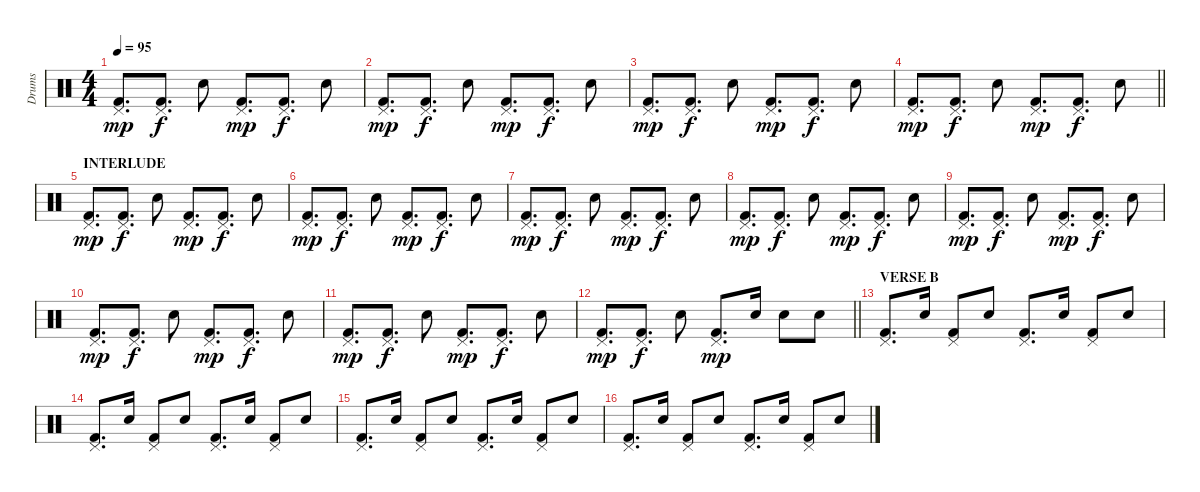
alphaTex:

\track ("Drums" "Drums") {instrument percussion}
\staff {score}
\articulation defaults
\ts (4 4)
\tempo 95
\clef neutral
\ks c
("Pedal Hi-Hat (hit)" "Kick (hit) 2").8{d dy mp} ("Pedal Hi-Hat (hit)" "Kick (hit) 2").8{d dy f} "Snare (hit) 2".8 ("Pedal Hi-Hat (hit)" "Kick (hit) 2").8{d dy mp} ("Pedal Hi-Hat (hit)" "Kick (hit) 2").8{d dy f} "Snare (hit) 2".8 |
("Pedal Hi-Hat (hit)" "Kick (hit) 2").8{d dy mp} ("Pedal Hi-Hat (hit)" "Kick (hit) 2").8{d dy f} "Snare (hit) 2".8 ("Pedal Hi-Hat (hit)" "Kick (hit) 2").8{d dy mp} ("Pedal Hi-Hat (hit)" "Kick (hit) 2").8{d dy f} "Snare (hit) 2".8 |
("Pedal Hi-Hat (hit)" "Kick (hit) 2").8{d dy mp} ("Pedal Hi-Hat (hit)" "Kick (hit) 2").8{d dy f} "Snare (hit) 2".8 ("Pedal Hi-Hat (hit)" "Kick (hit) 2").8{d dy mp} ("Pedal Hi-Hat (hit)" "Kick (hit) 2").8{d dy f} "Snare (hit) 2".8 |
\barLineRight lightlight
("Pedal Hi-Hat (hit)" "Kick (hit) 2").8{d dy mp} ("Pedal Hi-Hat (hit)" "Kick (hit) 2").8{d dy f} "Snare (hit) 2".8 ("Pedal Hi-Hat (hit)" "Kick (hit) 2").8{d dy mp} ("Pedal Hi-Hat (hit)" "Kick (hit) 2").8{d dy f} "Snare (hit) 2".8 |
\section ("" "INTERLUDE")
("Pedal Hi-Hat (hit)" "Kick (hit) 2").8{d dy mp} ("Pedal Hi-Hat (hit)" "Kick (hit) 2").8{d dy f} "Snare (hit) 2".8 ("Pedal Hi-Hat (hit)" "Kick (hit) 2").8{d dy mp} ("Pedal Hi-Hat (hit)" "Kick (hit) 2").8{d dy f} "Snare (hit) 2".8 |
("Pedal Hi-Hat (hit)" "Kick (hit) 2").8{d dy mp} ("Pedal Hi-Hat (hit)" "Kick (hit) 2").8{d dy f} "Snare (hit) 2".8 ("Pedal Hi-Hat (hit)" "Kick (hit) 2").8{d dy mp} ("Pedal Hi-Hat (hit)" "Kick (hit) 2").8{d dy f} "Snare (hit) 2".8 |
("Pedal Hi-Hat (hit)" "Kick (hit) 2").8{d dy mp} ("Pedal Hi-Hat (hit)" "Kick (hit) 2").8{d dy f} "Snare (hit) 2".8 ("Pedal Hi-Hat (hit)" "Kick (hit) 2").8{d dy mp} ("Pedal Hi-Hat (hit)" "Kick (hit) 2").8{d dy f} "Snare (hit) 2".8 |
("Pedal Hi-Hat (hit)" "Kick (hit) 2").8{d dy mp} ("Pedal Hi-Hat (hit)" "Kick (hit) 2").8{d dy f} "Snare (hit) 2".8 ("Pedal Hi-Hat (hit)" "Kick (hit) 2").8{d dy mp} ("Pedal Hi-Hat (hit)" "Kick (hit) 2").8{d dy f} "Snare (hit) 2".8 |
("Pedal Hi-Hat (hit)" "Kick (hit) 2").8{d dy mp} ("Pedal Hi-Hat (hit)" "Kick (hit) 2").8{d dy f} "Snare (hit) 2".8 ("Pedal Hi-Hat (hit)" "Kick (hit) 2").8{d dy mp} ("Pedal Hi-Hat (hit)" "Kick (hit) 2").8{d dy f} "Snare (hit) 2".8 |
("Pedal Hi-Hat (hit)" "Kick (hit) 2").8{d dy mp} ("Pedal Hi-Hat (hit)" "Kick (hit) 2").8{d dy f} "Snare (hit) 2".8 ("Pedal Hi-Hat (hit)" "Kick (hit) 2").8{d dy mp} ("Pedal Hi-Hat (hit)" "Kick (hit) 2").8{d dy f} "Snare (hit) 2".8 |
("Pedal Hi-Hat (hit)" "Kick (hit) 2").8{d dy mp} ("Pedal Hi-Hat (hit)" "Kick (hit) 2").8{d dy f} "Snare (hit) 2".8 ("Pedal Hi-Hat (hit)" "Kick (hit) 2").8{d dy mp} ("Pedal Hi-Hat (hit)" "Kick (hit) 2").8{d dy f} "Snare (hit) 2".8 |
\barLineRight lightlight
("Pedal Hi-Hat (hit)" "Kick (hit) 2").8{d dy mp} ("Pedal Hi-Hat (hit)" "Kick (hit) 2").8{d dy f} "Snare (hit) 2".8 ("Pedal Hi-Hat (hit)" "Kick (hit) 2").8{d dy mp} "Snare (hit) 2".16 "Snare (hit) 2".8 "Snare (hit) 2".8 |
\section ("" "VERSE B")
("Pedal Hi-Hat (hit)" "Kick (hit) 2").8{d} "Snare (hit) 2".16 ("Pedal Hi-Hat (hit)" "Kick (hit) 2").8 "Snare (hit) 2".8 ("Pedal Hi-Hat (hit)" "Kick (hit) 2").8{d} "Snare (hit) 2".16 ("Pedal Hi-Hat (hit)" "Kick (hit) 2").8 "Snare (hit) 2".8 |
("Pedal Hi-Hat (hit)" "Kick (hit) 2").8{d} "Snare (hit) 2".16 ("Pedal Hi-Hat (hit)" "Kick (hit) 2").8 "Snare (hit) 2".8 ("Pedal Hi-Hat (hit)" "Kick (hit) 2").8{d} "Snare (hit) 2".16 ("Pedal Hi-Hat (hit)" "Kick (hit) 2").8 "Snare (hit) 2".8 |
("Pedal Hi-Hat (hit)" "Kick (hit) 2").8{d} "Snare (hit) 2".16 ("Pedal Hi-Hat (hit)" "Kick (hit) 2").8 "Snare (hit) 2".8 ("Pedal Hi-Hat (hit)" "Kick (hit) 2").8{d} "Snare (hit) 2".16 ("Pedal Hi-Hat (hit)" "Kick (hit) 2").8 "Snare (hit) 2".8 |
("Pedal Hi-Hat (hit)" "Kick (hit) 2").8{d} "Snare (hit) 2".16 ("Pedal Hi-Hat (hit)" "Kick (hit) 2").8 "Snare (hit) 2".8 ("Pedal Hi-Hat (hit)" "Kick (hit) 2").8{d} "Snare (hit) 2".16 ("Pedal Hi-Hat (hit)" "Kick (hit) 2").8 "Snare (hit) 2".8
